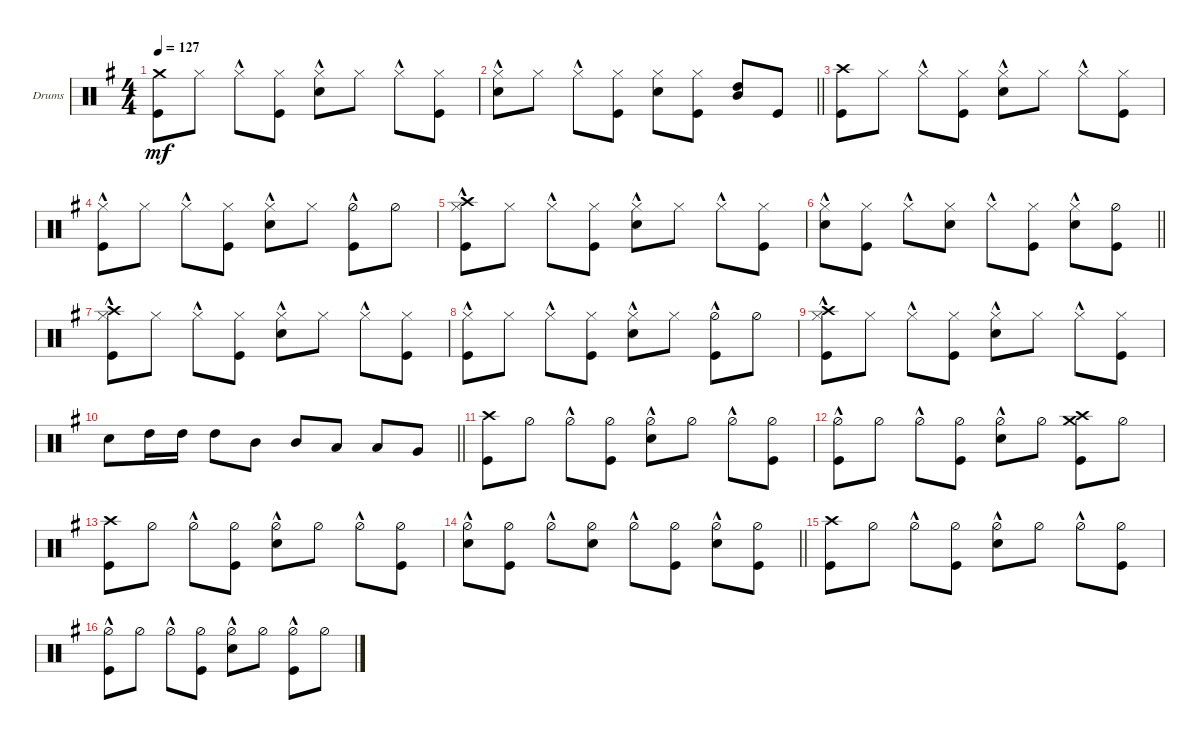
\bracketExtendMode groupsimilarinstruments
\firstSystemTrackNameOrientation horizontal
\otherSystemsTrackNameOrientation horizontal
\track ("drums (Anton Zulganov)" "Drums") {instrument percussion}
\staff {score}
\articulation defaults
\ts (4 4)
\tempo 127
\clef neutral
\ks eminor
("Kick (hit)" "Crash medium (hit)").8{dy mf} "Hi-Hat (closed)".8 "Hi-Hat (closed)"{hac}.8 ("Hi-Hat (closed)" "Kick (hit)").8 ("Hi-Hat (closed)"{hac} "Snare (hit) 2").8 "Hi-Hat (closed)".8 "Hi-Hat (closed)"{hac}.8 ("Hi-Hat (closed)" "Kick (hit)").8 |
\barLineRight lightlight
("Hi-Hat (closed)"{hac} "Snare (hit) 2").8 "Hi-Hat (closed)".8 "Hi-Hat (closed)"{hac}.8 ("Hi-Hat (closed)" "Kick (hit)").8 ("Snare (hit) 2" "Hi-Hat (closed)").8 ("Kick (hit)" "Hi-Hat (closed)").8 ("Mid Tom (hit)" "High Tom (hit)").8 "Kick (hit)".8 |
("Kick (hit)" "Crash high (hit)").8 "Hi-Hat (closed)".8 "Hi-Hat (closed)"{hac}.8 ("Hi-Hat (closed)" "Kick (hit)").8 ("Hi-Hat (closed)"{hac} "Snare (hit) 2").8 "Hi-Hat (closed)".8 "Hi-Hat (closed)"{hac}.8 ("Hi-Hat (closed)" "Kick (hit)").8 |
("Hi-Hat (closed)"{hac} "Kick (hit)").8 "Hi-Hat (closed)".8 "Hi-Hat (closed)"{hac}.8 ("Hi-Hat (closed)" "Kick (hit)").8 ("Hi-Hat (closed)"{hac} "Snare (hit) 2").8 "Hi-Hat (closed)".8 ("Hi-Hat (half)"{hac} "Kick (hit)").8 "Hi-Hat (half)".8 |
("Hi-Hat (closed)"{hac} "Kick (hit)" "Crash high (hit)").8 "Hi-Hat (closed)".8 "Hi-Hat (closed)"{hac}.8 ("Hi-Hat (closed)" "Kick (hit)").8 ("Hi-Hat (closed)"{hac} "Snare (hit) 2").8 "Hi-Hat (closed)".8 "Hi-Hat (closed)"{hac}.8 ("Hi-Hat (closed)" "Kick (hit)").8 |
\barLineRight lightlight
("Hi-Hat (closed)"{hac} "Snare (hit) 2").8 ("Hi-Hat (closed)" "Kick (hit)").8 "Hi-Hat (closed)"{hac}.8 ("Hi-Hat (closed)" "Snare (hit) 2").8 "Hi-Hat (closed)"{hac}.8 ("Hi-Hat (closed)" "Kick (hit)").8 ("Hi-Hat (closed)"{hac} "Snare (hit) 2").8 ("Hi-Hat (half)" "Kick (hit)").8 |
("Hi-Hat (closed)"{hac} "Kick (hit)" "Crash high (hit)").8 "Hi-Hat (closed)".8 "Hi-Hat (closed)"{hac}.8 ("Hi-Hat (closed)" "Kick (hit)").8 ("Hi-Hat (closed)"{hac} "Snare (hit) 2").8 "Hi-Hat (closed)".8 "Hi-Hat (closed)"{hac}.8 ("Hi-Hat (closed)" "Kick (hit)").8 |
("Hi-Hat (closed)"{hac} "Kick (hit)").8 "Hi-Hat (closed)".8 "Hi-Hat (closed)"{hac}.8 ("Hi-Hat (closed)" "Kick (hit)").8 ("Hi-Hat (closed)"{hac} "Snare (hit) 2").8 "Hi-Hat (closed)".8 ("Hi-Hat (half)"{hac} "Kick (hit)").8 "Hi-Hat (half)".8 |
("Hi-Hat (closed)"{hac} "Kick (hit)" "Crash high (hit)").8 "Hi-Hat (closed)".8 "Hi-Hat (closed)"{hac}.8 ("Hi-Hat (closed)" "Kick (hit)").8 ("Hi-Hat (closed)"{hac} "Snare (hit) 2").8 "Hi-Hat (closed)".8 "Hi-Hat (closed)"{hac}.8 ("Hi-Hat (closed)" "Kick (hit)").8 |
\barLineRight lightlight "Snare (hit) 2".8 "High Tom (hit)".16 "High Tom (hit)".16 "High Tom (hit)".8 "Mid Tom (hit)".8 "Mid Tom (hit)".8 "Low Tom (hit)".8 "Low Tom (hit)".8 "Very Low Tom (hit)".8
|
("Kick (hit)" "Crash high (hit)").8 "Hi-Hat (half)".8 "Hi-Hat (half)"{hac}.8 ("Hi-Hat (half)" "Kick (hit)").8 ("Hi-Hat (half)"{hac} "Snare (hit) 2").8 "Hi-Hat (half)".8 "Hi-Hat (half)"{hac}.8 ("Hi-Hat (half)" "Kick (hit)").8 |
("Hi-Hat (half)"{hac} "Kick (hit)").8 "Hi-Hat (half)".8 "Hi-Hat (half)"{hac}.8 ("Hi-Hat (half)" "Kick (hit)").8 ("Hi-Hat (half)"{hac} "Snare (hit) 2").8 "Hi-Hat (half)".8 ("Kick (hit)" "Crash medium (hit)" "Crash high (hit)").8 "Hi-Hat (half)".8 |
("Kick (hit)" "Crash high (hit)").8 "Hi-Hat (half)".8 "Hi-Hat (half)"{hac}.8 ("Hi-Hat (half)" "Kick (hit)").8 ("Hi-Hat (half)"{hac} "Snare (hit) 2").8 "Hi-Hat (half)".8 "Hi-Hat (half)"{hac}.8 ("Hi-Hat (half)" "Kick (hit)").8 |
\barLineRight lightlight
("Hi-Hat (half)"{hac} "Snare (hit) 2").8 ("Hi-Hat (half)" "Kick (hit)").8 "Hi-Hat (half)"{hac}.8 ("Hi-Hat (half)" "Snare (hit) 2").8 "Hi-Hat (half)"{hac}.8 ("Hi-Hat (half)" "Kick (hit)").8 ("Hi-Hat (half)"{hac} "Snare (hit) 2").8 ("Hi-Hat (half)" "Kick (hit)").8 |
("Kick (hit)" "Crash high (hit)").8 "Hi-Hat (half)".8 "Hi-Hat (half)"{hac}.8 ("Hi-Hat (half)" "Kick (hit)").8 ("Hi-Hat (half)"{hac} "Snare (hit) 2").8 "Hi-Hat (half)".8 "Hi-Hat (half)"{hac}.8 ("Hi-Hat (half)" "Kick (hit)").8 |
("Hi-Hat (half)"{hac} "Kick (hit)").8 "Hi-Hat (half)".8 "Hi-Hat (half)"{hac}.8 ("Hi-Hat (half)" "Kick (hit)").8 ("Hi-Hat (half)"{hac} "Snare (hit) 2").8 "Hi-Hat (half)".8 ("Hi-Hat (half)"{hac} "Kick (hit)").8 "Hi-Hat (half)".8
